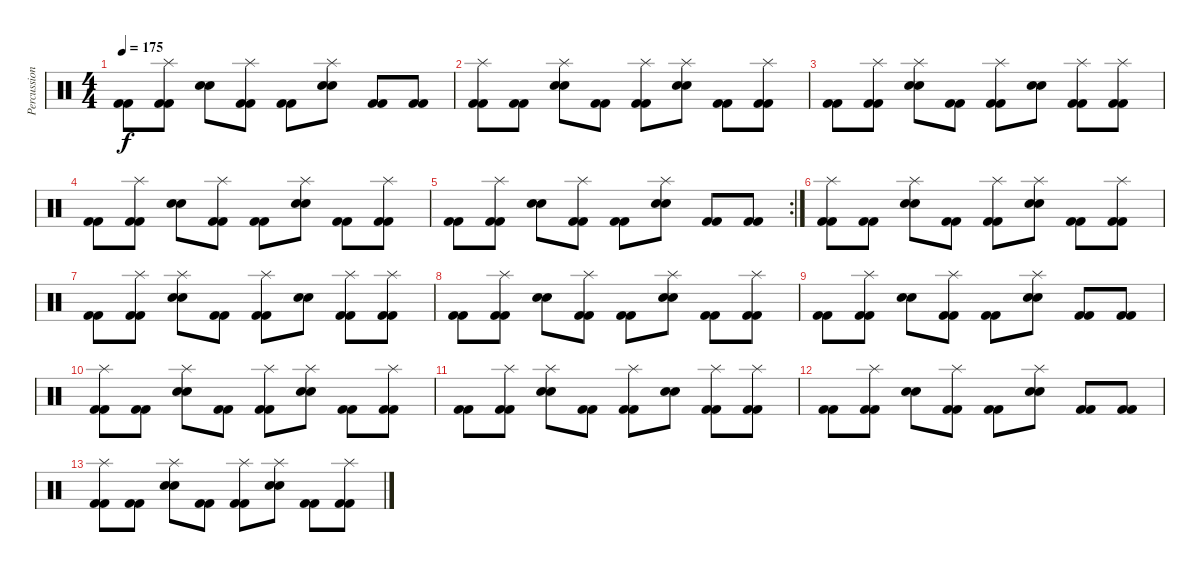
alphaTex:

\track ("Percussion" "Percussion") {instrument percussion}
\staff {score}
\articulation defaults
\ts (4 4)
\tempo 175
\clef neutral
\ks c
("Kick (hit) 2" "Kick (hit) 2").8{dy f} ("Splash (hit)" "Kick (hit) 2" "Kick (hit) 2").8 ("Electric Snare (hit)" "Electric Snare (hit)").8 ("Splash (hit)" "Kick (hit) 2" "Kick (hit) 2").8 ("Kick (hit) 2" "Kick (hit) 2").8 ("Splash (hit)" "Electric Snare (hit)" "Electric Snare (hit)").8 ("Kick (hit) 2" "Kick (hit) 2").8 ("Kick (hit) 2" "Kick (hit) 2").8 |
("Splash (hit)" "Kick (hit) 2" "Kick (hit) 2").8 ("Kick (hit) 2" "Kick (hit) 2").8 ("Splash (hit)" "Electric Snare (hit)" "Electric Snare (hit)").8 ("Kick (hit) 2" "Kick (hit) 2").8 ("Splash (hit)" "Kick (hit) 2" "Kick (hit) 2").8 ("Splash (hit)" "Electric Snare (hit)" "Electric Snare (hit)").8 ("Kick (hit) 2" "Kick (hit) 2").8 ("Splash (hit)" "Kick (hit) 2" "Kick (hit) 2").8 |
("Kick (hit) 2" "Kick (hit) 2").8 ("Splash (hit)" "Kick (hit) 2" "Kick (hit) 2").8 ("Splash (hit)" "Electric Snare (hit)" "Electric Snare (hit)").8 ("Kick (hit) 2" "Kick (hit) 2").8 ("Splash (hit)" "Kick (hit) 2" "Kick (hit) 2").8 ("Electric Snare (hit)" "Electric Snare (hit)").8 ("Splash (hit)" "Kick (hit) 2" "Kick (hit) 2").8 ("Splash (hit)" "Kick (hit) 2" "Kick (hit) 2").8 |
("Kick (hit) 2" "Kick (hit) 2").8 ("Splash (hit)" "Kick (hit) 2" "Kick (hit) 2").8 ("Electric Snare (hit)" "Electric Snare (hit)").8 ("Splash (hit)" "Kick (hit) 2" "Kick (hit) 2").8 ("Kick (hit) 2" "Kick (hit) 2").8 ("Splash (hit)" "Electric Snare (hit)" "Electric Snare (hit)").8 ("Kick (hit) 2" "Kick (hit) 2").8 ("Splash (hit)" "Kick (hit) 2" "Kick (hit) 2").8 |
\rc 2
("Kick (hit) 2" "Kick (hit) 2").8 ("Splash (hit)" "Kick (hit) 2" "Kick (hit) 2").8 ("Electric Snare (hit)" "Electric Snare (hit)").8 ("Splash (hit)" "Kick (hit) 2" "Kick (hit) 2").8 ("Kick (hit) 2" "Kick (hit) 2").8 ("Splash (hit)" "Electric Snare (hit)" "Electric Snare (hit)").8 ("Kick (hit) 2" "Kick (hit) 2").8 ("Kick (hit) 2" "Kick (hit) 2").8 |
("Splash (hit)" "Kick (hit) 2" "Kick (hit) 2").8 ("Kick (hit) 2" "Kick (hit) 2").8 ("Splash (hit)" "Electric Snare (hit)" "Electric Snare (hit)").8 ("Kick (hit) 2" "Kick (hit) 2").8 ("Splash (hit)" "Kick (hit) 2" "Kick (hit) 2").8 ("Splash (hit)" "Electric Snare (hit)" "Electric Snare (hit)").8 ("Kick (hit) 2" "Kick (hit) 2").8 ("Splash (hit)" "Kick (hit) 2" "Kick (hit) 2").8 |
("Kick (hit) 2" "Kick (hit) 2").8 ("Splash (hit)" "Kick (hit) 2" "Kick (hit) 2").8 ("Splash (hit)" "Electric Snare (hit)" "Electric Snare (hit)").8 ("Kick (hit) 2" "Kick (hit) 2").8 ("Splash (hit)" "Kick (hit) 2" "Kick (hit) 2").8 ("Electric Snare (hit)" "Electric Snare (hit)").8 ("Splash (hit)" "Kick (hit) 2" "Kick (hit) 2").8 ("Splash (hit)" "Kick (hit) 2" "Kick (hit) 2").8 |
("Kick (hit) 2" "Kick (hit) 2").8 ("Splash (hit)" "Kick (hit) 2" "Kick (hit) 2").8 ("Electric Snare (hit)" "Electric Snare (hit)").8 ("Splash (hit)" "Kick (hit) 2" "Kick (hit) 2").8 ("Kick (hit) 2" "Kick (hit) 2").8 ("Splash (hit)" "Electric Snare (hit)" "Electric Snare (hit)").8 ("Kick (hit) 2" "Kick (hit) 2").8 ("Splash (hit)" "Kick (hit) 2" "Kick (hit) 2").8 |
("Kick (hit) 2" "Kick (hit) 2").8 ("Splash (hit)" "Kick (hit) 2" "Kick (hit) 2").8 ("Electric Snare (hit)" "Electric Snare (hit)").8 ("Splash (hit)" "Kick (hit) 2" "Kick (hit) 2").8 ("Kick (hit) 2" "Kick (hit) 2").8 ("Splash (hit)" "Electric Snare (hit)" "Electric Snare (hit)").8 ("Kick (hit) 2" "Kick (hit) 2").8 ("Kick (hit) 2" "Kick (hit) 2").8 |
("Splash (hit)" "Kick (hit) 2" "Kick (hit) 2").8 ("Kick (hit) 2" "Kick (hit) 2").8 ("Splash (hit)" "Electric Snare (hit)" "Electric Snare (hit)").8 ("Kick (hit) 2" "Kick (hit) 2").8 ("Splash (hit)" "Kick (hit) 2" "Kick (hit) 2").8 ("Splash (hit)" "Electric Snare (hit)" "Electric Snare (hit)").8 ("Kick (hit) 2" "Kick (hit) 2").8 ("Splash (hit)" "Kick (hit) 2" "Kick (hit) 2").8 |
("Kick (hit) 2" "Kick (hit) 2").8 ("Splash (hit)" "Kick (hit) 2" "Kick (hit) 2").8 ("Splash (hit)" "Electric Snare (hit)" "Electric Snare (hit)").8 ("Kick (hit) 2" "Kick (hit) 2").8 ("Splash (hit)" "Kick (hit) 2" "Kick (hit) 2").8 ("Electric Snare (hit)" "Electric Snare (hit)").8 ("Splash (hit)" "Kick (hit) 2" "Kick (hit) 2").8 ("Splash (hit)" "Kick (hit) 2" "Kick (hit) 2").8 |
("Kick (hit) 2" "Kick (hit) 2").8 ("Splash (hit)" "Kick (hit) 2" "Kick (hit) 2").8 ("Electric Snare (hit)" "Electric Snare (hit)").8 ("Splash (hit)" "Kick (hit) 2" "Kick (hit) 2").8 ("Kick (hit) 2" "Kick (hit) 2").8 ("Splash (hit)" "Electric Snare (hit)" "Electric Snare (hit)").8 ("Kick (hit) 2" "Kick (hit) 2").8 ("Kick (hit) 2" "Kick (hit) 2").8 |
("Splash (hit)" "Kick (hit) 2" "Kick (hit) 2").8 ("Kick (hit) 2" "Kick (hit) 2").8 ("Splash (hit)" "Electric Snare (hit)" "Electric Snare (hit)").8 ("Kick (hit) 2" "Kick (hit) 2").8 ("Splash (hit)" "Kick (hit) 2" "Kick (hit) 2").8 ("Splash (hit)" "Electric Snare (hit)" "Electric Snare (hit)").8 ("Kick (hit) 2" "Kick (hit) 2").8 ("Splash (hit)" "Kick (hit) 2" "Kick (hit) 2").8
